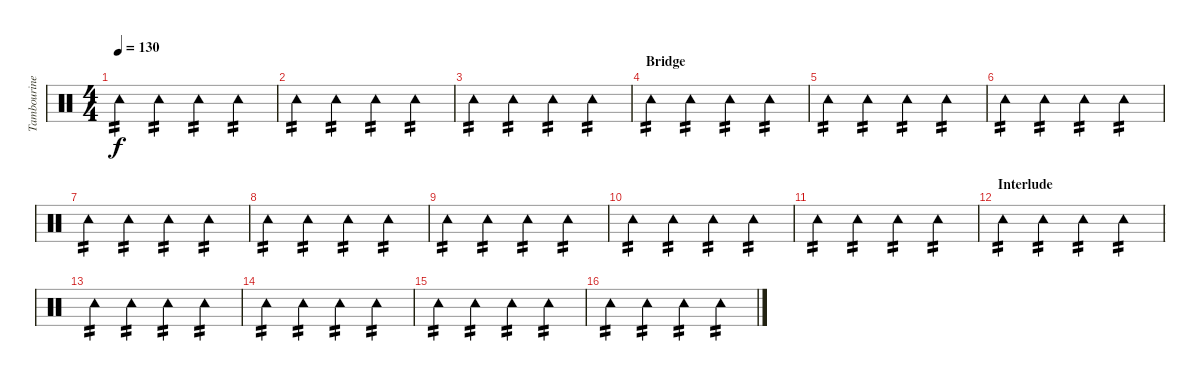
\track ("Tambourine" "Tambourine") {instrument percussion}
\staff {score}
\articulation defaults
\ts (4 4)
\tempo 130
\clef neutral
\ks c "Tambourine (hit)".4{tp 2 dy f} "Tambourine (hit)".4{tp 2} "Tambourine (hit)".4{tp 2} "Tambourine (hit)".4{tp 2}
|
"Tambourine (hit)".4{tp 2} "Tambourine (hit)".4{tp 2} "Tambourine (hit)".4{tp 2} "Tambourine (hit)".4{tp 2} |
"Tambourine (hit)".4{tp 2} "Tambourine (hit)".4{tp 2} "Tambourine (hit)".4{tp 2} "Tambourine (hit)".4{tp 2} |
\section ("" "Bridge")
"Tambourine (hit)".4{tp 2} "Tambourine (hit)".4{tp 2} "Tambourine (hit)".4{tp 2} "Tambourine (hit)".4{tp 2} |
"Tambourine (hit)".4{tp 2} "Tambourine (hit)".4{tp 2} "Tambourine (hit)".4{tp 2} "Tambourine (hit)".4{tp 2} |
"Tambourine (hit)".4{tp 2} "Tambourine (hit)".4{tp 2} "Tambourine (hit)".4{tp 2} "Tambourine (hit)".4{tp 2} |
"Tambourine (hit)".4{tp 2} "Tambourine (hit)".4{tp 2} "Tambourine (hit)".4{tp 2} "Tambourine (hit)".4{tp 2} |
"Tambourine (hit)".4{tp 2} "Tambourine (hit)".4{tp 2} "Tambourine (hit)".4{tp 2} "Tambourine (hit)".4{tp 2} |
"Tambourine (hit)".4{tp 2} "Tambourine (hit)".4{tp 2} "Tambourine (hit)".4{tp 2} "Tambourine (hit)".4{tp 2} |
"Tambourine (hit)".4{tp 2} "Tambourine (hit)".4{tp 2} "Tambourine (hit)".4{tp 2} "Tambourine (hit)".4{tp 2} |
"Tambourine (hit)".4{tp 2} "Tambourine (hit)".4{tp 2} "Tambourine (hit)".4{tp 2} "Tambourine (hit)".4{tp 2} |
\section ("" "Interlude")
"Tambourine (hit)".4{tp 2} "Tambourine (hit)".4{tp 2} "Tambourine (hit)".4{tp 2} "Tambourine (hit)".4{tp 2} |
"Tambourine (hit)".4{tp 2} "Tambourine (hit)".4{tp 2} "Tambourine (hit)".4{tp 2} "Tambourine (hit)".4{tp 2} |
"Tambourine (hit)".4{tp 2} "Tambourine (hit)".4{tp 2} "Tambourine (hit)".4{tp 2} "Tambourine (hit)".4{tp 2} |
"Tambourine (hit)".4{tp 2} "Tambourine (hit)".4{tp 2} "Tambourine (hit)".4{tp 2} "Tambourine (hit)".4{tp 2} |
"Tambourine (hit)".4{tp 2} "Tambourine (hit)".4{tp 2} "Tambourine (hit)".4{tp 2} "Tambourine (hit)".4{tp 2}
